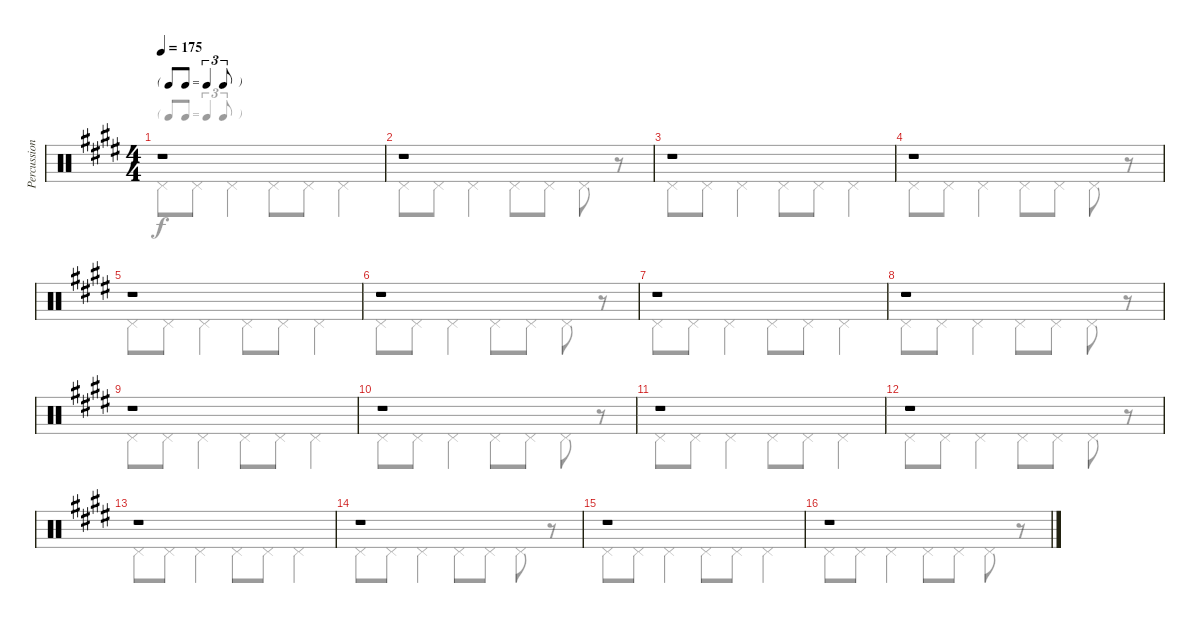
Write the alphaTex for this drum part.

\track ("Percussion" "Percussion") {instrument percussion}
\staff {score}
\articulation defaults
\voice
\ts (4 4)
\tf triplet8th
\tempo 175
\clef neutral
\ks e
r.1{dy f} |
r.1 |
r.1 |
r.1 |
r.1 |
r.1 |
r.1 |
r.1 |
r.1 |
r.1 |
r.1 |
r.1 |
r.1 |
r.1 |
r.1 |
r.1
\voice
\clef neutral
\ottava regular
\simile none
\ks e "Pedal Hi-Hat (hit)".8{dy f} "Pedal Hi-Hat (hit)".8 "Pedal Hi-Hat (hit)".4 "Pedal Hi-Hat (hit)".8 "Pedal Hi-Hat (hit)".8 "Pedal Hi-Hat (hit)".4
|
"Pedal Hi-Hat (hit)".8 "Pedal Hi-Hat (hit)".8 "Pedal Hi-Hat (hit)".4 "Pedal Hi-Hat (hit)".8 "Pedal Hi-Hat (hit)".8 "Pedal Hi-Hat (hit)".8 r.8 |
"Pedal Hi-Hat (hit)".8 "Pedal Hi-Hat (hit)".8 "Pedal Hi-Hat (hit)".4 "Pedal Hi-Hat (hit)".8 "Pedal Hi-Hat (hit)".8 "Pedal Hi-Hat (hit)".4 |
"Pedal Hi-Hat (hit)".8 "Pedal Hi-Hat (hit)".8 "Pedal Hi-Hat (hit)".4 "Pedal Hi-Hat (hit)".8 "Pedal Hi-Hat (hit)".8 "Pedal Hi-Hat (hit)".8 r.8 |
"Pedal Hi-Hat (hit)".8 "Pedal Hi-Hat (hit)".8 "Pedal Hi-Hat (hit)".4 "Pedal Hi-Hat (hit)".8 "Pedal Hi-Hat (hit)".8 "Pedal Hi-Hat (hit)".4 |
"Pedal Hi-Hat (hit)".8 "Pedal Hi-Hat (hit)".8 "Pedal Hi-Hat (hit)".4 "Pedal Hi-Hat (hit)".8 "Pedal Hi-Hat (hit)".8 "Pedal Hi-Hat (hit)".8 r.8 |
"Pedal Hi-Hat (hit)".8 "Pedal Hi-Hat (hit)".8 "Pedal Hi-Hat (hit)".4 "Pedal Hi-Hat (hit)".8 "Pedal Hi-Hat (hit)".8 "Pedal Hi-Hat (hit)".4 |
"Pedal Hi-Hat (hit)".8 "Pedal Hi-Hat (hit)".8 "Pedal Hi-Hat (hit)".4 "Pedal Hi-Hat (hit)".8 "Pedal Hi-Hat (hit)".8 "Pedal Hi-Hat (hit)".8 r.8 |
"Pedal Hi-Hat (hit)".8 "Pedal Hi-Hat (hit)".8 "Pedal Hi-Hat (hit)".4 "Pedal Hi-Hat (hit)".8 "Pedal Hi-Hat (hit)".8 "Pedal Hi-Hat (hit)".4 |
"Pedal Hi-Hat (hit)".8 "Pedal Hi-Hat (hit)".8 "Pedal Hi-Hat (hit)".4 "Pedal Hi-Hat (hit)".8 "Pedal Hi-Hat (hit)".8 "Pedal Hi-Hat (hit)".8 r.8 |
"Pedal Hi-Hat (hit)".8 "Pedal Hi-Hat (hit)".8 "Pedal Hi-Hat (hit)".4 "Pedal Hi-Hat (hit)".8 "Pedal Hi-Hat (hit)".8 "Pedal Hi-Hat (hit)".4 |
"Pedal Hi-Hat (hit)".8 "Pedal Hi-Hat (hit)".8 "Pedal Hi-Hat (hit)".4 "Pedal Hi-Hat (hit)".8 "Pedal Hi-Hat (hit)".8 "Pedal Hi-Hat (hit)".8 r.8 |
"Pedal Hi-Hat (hit)".8 "Pedal Hi-Hat (hit)".8 "Pedal Hi-Hat (hit)".4 "Pedal Hi-Hat (hit)".8 "Pedal Hi-Hat (hit)".8 "Pedal Hi-Hat (hit)".4 |
"Pedal Hi-Hat (hit)".8 "Pedal Hi-Hat (hit)".8 "Pedal Hi-Hat (hit)".4 "Pedal Hi-Hat (hit)".8 "Pedal Hi-Hat (hit)".8 "Pedal Hi-Hat (hit)".8 r.8 |
"Pedal Hi-Hat (hit)".8 "Pedal Hi-Hat (hit)".8 "Pedal Hi-Hat (hit)".4 "Pedal Hi-Hat (hit)".8 "Pedal Hi-Hat (hit)".8 "Pedal Hi-Hat (hit)".4 |
"Pedal Hi-Hat (hit)".8 "Pedal Hi-Hat (hit)".8 "Pedal Hi-Hat (hit)".4 "Pedal Hi-Hat (hit)".8 "Pedal Hi-Hat (hit)".8 "Pedal Hi-Hat (hit)".8 r.8
